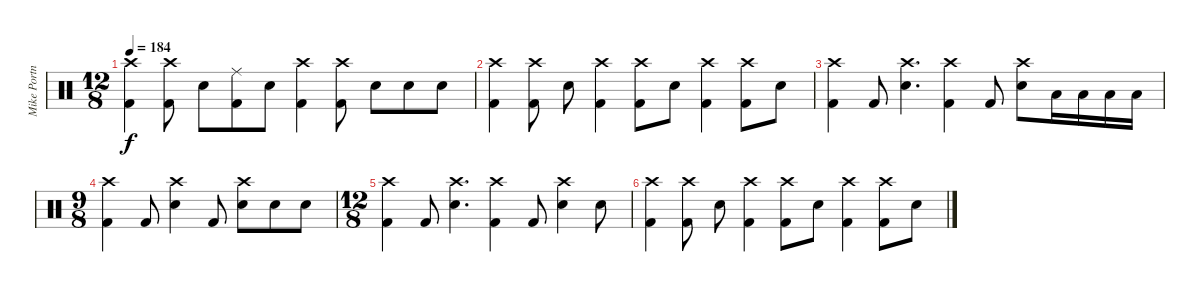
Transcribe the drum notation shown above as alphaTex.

\track ("Mike Portnoy - Drum" "Mike Portn") {instrument percussion}
\staff {score}
\articulation defaults
\ts (12 8)
\tempo 184
\clef neutral
\ks c
("Crash high (hit)" "Kick (hit) 2").4{dy f} ("Crash high (hit)" "Kick (hit) 2").8 "Electric Snare (hit)".8 ("Ride (middle)" "Kick (hit) 2").8 "Electric Snare (hit)".8 ("Crash high (hit)" "Kick (hit) 2").4 ("Crash high (hit)" "Kick (hit) 2").8 "Electric Snare (hit)".8 "Electric Snare (hit)".8 "Electric Snare (hit)".8 |
("Crash high (hit)" "Kick (hit) 2").4 ("Crash high (hit)" "Kick (hit) 2").8 "Electric Snare (hit)".8 ("Crash high (hit)" "Kick (hit) 2").4 ("Crash high (hit)" "Kick (hit) 2").8 "Electric Snare (hit)".8 ("Crash high (hit)" "Kick (hit) 2").4 ("Crash high (hit)" "Kick (hit) 2").8 "Electric Snare (hit)".8 |
("Crash high (hit)" "Kick (hit) 2").4 "Kick (hit) 2".8 ("Crash high (hit)" "Electric Snare (hit)").4{d} ("Crash high (hit)" "Kick (hit) 2").4 "Kick (hit) 2".8 ("Crash high (hit)" "Electric Snare (hit)").8 "Low Tom (hit)".16 "Low Tom (hit)".16 "Low Tom (hit)".16 "Low Tom (hit)".16 |
\ts (9 8)
("Crash high (hit)" "Kick (hit) 2").4 "Kick (hit) 2".8 ("Crash high (hit)" "Electric Snare (hit)").4 "Kick (hit) 2".8 ("Crash high (hit)" "Electric Snare (hit)").8 "Electric Snare (hit)".8 "Electric Snare (hit)".8 |
\ts (12 8)
("Crash high (hit)" "Kick (hit) 2").4 "Kick (hit) 2".8 ("Crash high (hit)" "Electric Snare (hit)").4{d} ("Crash high (hit)" "Kick (hit) 2").4 "Kick (hit) 2".8 ("Crash high (hit)" "Electric Snare (hit)").4 "Electric Snare (hit)".8 |
("Crash high (hit)" "Kick (hit) 2").4 ("Crash high (hit)" "Kick (hit) 2").8 "Electric Snare (hit)".8 ("Crash high (hit)" "Kick (hit) 2").4 ("Crash high (hit)" "Kick (hit) 2").8 "Electric Snare (hit)".8 ("Crash high (hit)" "Kick (hit) 2").4 ("Crash high (hit)" "Kick (hit) 2").8 "Electric Snare (hit)".8
